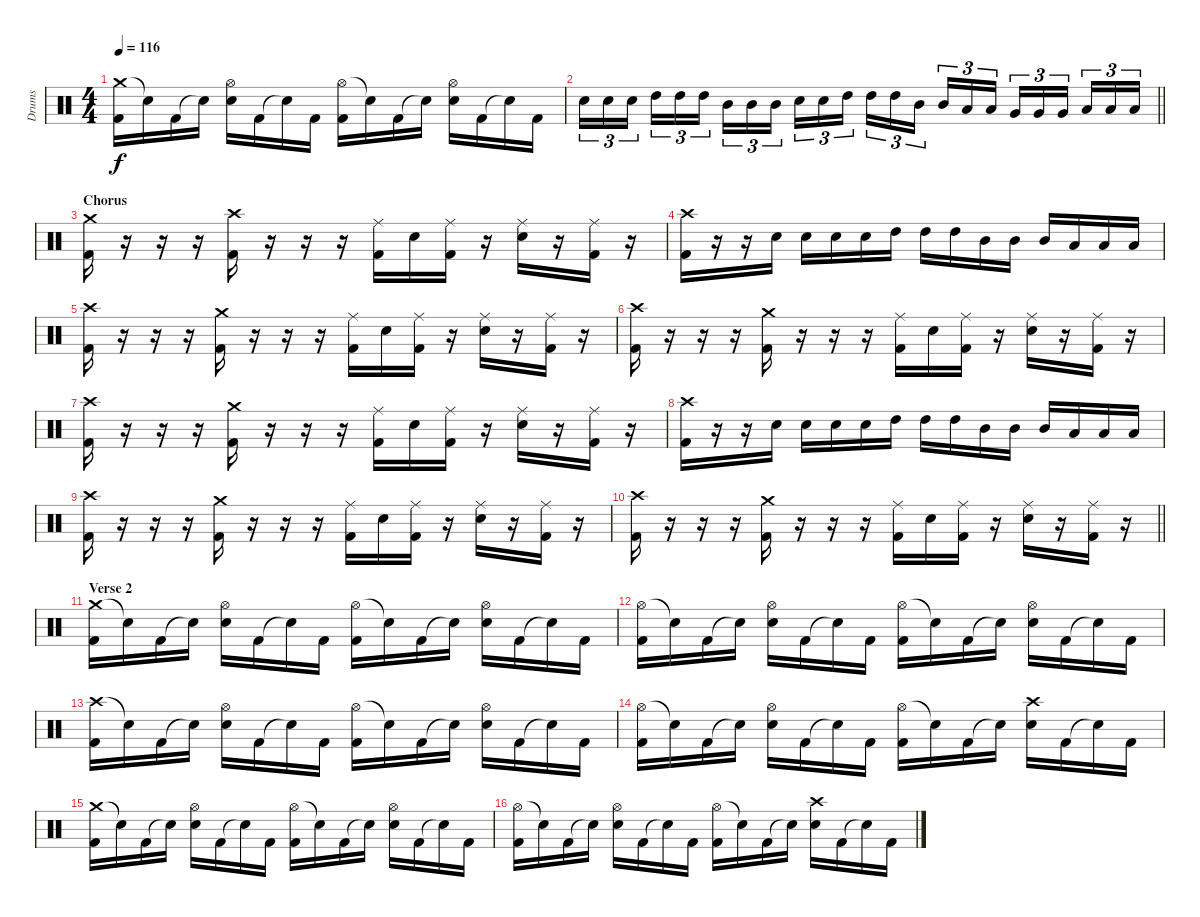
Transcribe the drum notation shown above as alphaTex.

\track ("Drums" "Drums") {instrument percussion}
\staff {score}
\articulation defaults
\ts (4 4)
\tempo 116
\clef neutral
\ks c
("Crash medium (hit)" "Kick (hit) 2").16{dy f} "Snare (hit)"{t}.16 "Kick (hit) 2".16 "Snare (hit)"{t}.16 ("Hi-Hat (open)" "Snare (hit) 2").16 "Kick (hit) 2".16 "Snare (hit)"{t}.16 "Kick (hit) 2".16 ("Hi-Hat (open)" "Kick (hit) 2").16 "Snare (hit)"{t}.16 "Kick (hit) 2".16 "Snare (hit)"{t}.16 ("Hi-Hat (open)" "Snare (hit) 2").16 "Kick (hit) 2".16 "Snare (hit)"{t}.16 "Kick (hit) 2".16 |
\barLineRight lightlight "Snare (hit) 2".16{tu (3 2)} "Snare (hit) 2".16{tu (3 2)} "Snare (hit) 2".16{tu (3 2) beam splitsecondary} "High Tom (hit)".16{tu (3 2)} "High Tom (hit)".16{tu (3 2)} "High Tom (hit)".16{tu (3 2)} "Mid Tom (hit)".16{tu (3 2)} "Mid Tom (hit)".16{tu (3 2)} "Mid Tom (hit)".16{tu (3 2) beam splitsecondary} "Snare (hit) 2".16{tu (3 2)} "Snare (hit) 2".16{tu (3 2)} "High Tom (hit)".16{tu (3 2)} "High Tom (hit)".16{tu (3 2)} "High Tom (hit)".16{tu (3 2)} "Mid Tom (hit)".16{tu (3 2) beam splitsecondary} "Mid Tom (hit)".16{tu (3 2)} "Low Tom (hit)".16{tu (3 2)} "Low Tom (hit)".16{tu (3 2)} "Very Low Tom (hit)".16{tu (3 2)} "Very Low Tom (hit)".16{tu (3 2)} "Very Low Tom (hit)".16{tu (3 2) beam splitsecondary} "Low Floor Tom (hit)".16{tu (3 2)} "Low Floor Tom (hit)".16{tu (3 2)} "Low Floor Tom (hit)".16{tu (3 2)}
|
\section ("" "Chorus")
("Crash medium (hit)" "Kick (hit) 2").16 r.16 r.16 r.16 ("Crash high (hit)" "Kick (hit) 2").16 r.16 r.16 r.16 ("Ride (middle)" "Kick (hit) 2").16 "Snare (hit) 2".16 ("Ride (middle)" "Kick (hit) 2").16 r.16 ("Ride (middle)" "Snare (hit) 2").16 r.16 ("Ride (middle)" "Kick (hit) 2").16 r.16 |
("Crash high (hit)" "Kick (hit) 2").16 r.16 r.16 "Snare (hit) 2".16 "Snare (hit) 2".16 "Snare (hit) 2".16 "Snare (hit) 2".16 "High Tom (hit)".16 "High Tom (hit)".16 "High Tom (hit)".16 "Mid Tom (hit)".16 "Mid Tom (hit)".16 "Mid Tom (hit)".16 "Low Tom (hit)".16 "Low Tom (hit)".16 "Low Tom (hit)".16 |
("Crash high (hit)" "Kick (hit) 2").16 r.16 r.16 r.16 ("Crash medium (hit)" "Kick (hit) 2").16 r.16 r.16 r.16 ("Ride (middle)" "Kick (hit) 2").16 "Snare (hit) 2".16 ("Ride (middle)" "Kick (hit) 2").16 r.16 ("Ride (middle)" "Snare (hit) 2").16 r.16 ("Ride (middle)" "Kick (hit) 2").16 r.16 |
("Crash high (hit)" "Kick (hit) 2").16 r.16 r.16 r.16 ("Crash medium (hit)" "Kick (hit) 2").16 r.16 r.16 r.16 ("Ride (middle)" "Kick (hit) 2").16 "Snare (hit) 2".16 ("Ride (middle)" "Kick (hit) 2").16 r.16 ("Ride (middle)" "Snare (hit) 2").16 r.16 ("Ride (middle)" "Kick (hit) 2").16 r.16 |
("Crash high (hit)" "Kick (hit) 2").16 r.16 r.16 r.16 ("Crash medium (hit)" "Kick (hit) 2").16 r.16 r.16 r.16 ("Ride (middle)" "Kick (hit) 2").16 "Snare (hit) 2".16 ("Ride (middle)" "Kick (hit) 2").16 r.16 ("Ride (middle)" "Snare (hit) 2").16 r.16 ("Ride (middle)" "Kick (hit) 2").16 r.16 |
("Crash high (hit)" "Kick (hit) 2").16 r.16 r.16 "Snare (hit) 2".16 "Snare (hit) 2".16 "Snare (hit) 2".16 "Snare (hit) 2".16 "High Tom (hit)".16 "High Tom (hit)".16 "High Tom (hit)".16 "Mid Tom (hit)".16 "Mid Tom (hit)".16 "Mid Tom (hit)".16 "Low Tom (hit)".16 "Low Tom (hit)".16 "Low Tom (hit)".16 |
("Crash high (hit)" "Kick (hit) 2").16 r.16 r.16 r.16 ("Crash medium (hit)" "Kick (hit) 2").16 r.16 r.16 r.16 ("Ride (middle)" "Kick (hit) 2").16 "Snare (hit) 2".16 ("Ride (middle)" "Kick (hit) 2").16 r.16 ("Ride (middle)" "Snare (hit) 2").16 r.16 ("Ride (middle)" "Kick (hit) 2").16 r.16 |
\barLineRight lightlight
("Crash high (hit)" "Kick (hit) 2").16 r.16 r.16 r.16 ("Crash medium (hit)" "Kick (hit) 2").16 r.16 r.16 r.16 ("Ride (middle)" "Kick (hit) 2").16 "Snare (hit) 2".16 ("Ride (middle)" "Kick (hit) 2").16 r.16 ("Ride (middle)" "Snare (hit) 2").16 r.16 ("Ride (middle)" "Kick (hit) 2").16 r.16 |
\section ("" "Verse 2")
("Crash medium (hit)" "Kick (hit) 2").16 "Snare (hit)"{t}.16 "Kick (hit) 2".16 "Snare (hit)"{t}.16 ("Hi-Hat (open)" "Snare (hit) 2").16 "Kick (hit) 2".16 "Snare (hit)"{t}.16 "Kick (hit) 2".16 ("Hi-Hat (open)" "Kick (hit) 2").16 "Snare (hit)"{t}.16 "Kick (hit) 2".16 "Snare (hit)"{t}.16 ("Hi-Hat (open)" "Snare (hit) 2").16 "Kick (hit) 2".16 "Snare (hit)"{t}.16 "Kick (hit) 2".16 |
("Hi-Hat (open)" "Kick (hit) 2").16 "Snare (hit)"{t}.16 "Kick (hit) 2".16 "Snare (hit)"{t}.16 ("Hi-Hat (open)" "Snare (hit) 2").16 "Kick (hit) 2".16 "Snare (hit)"{t}.16 "Kick (hit) 2".16 ("Hi-Hat (open)" "Kick (hit) 2").16 "Snare (hit)"{t}.16 "Kick (hit) 2".16 "Snare (hit)"{t}.16 ("Hi-Hat (open)" "Snare (hit) 2").16 "Kick (hit) 2".16 "Snare (hit)"{t}.16 "Kick (hit) 2".16 |
("Crash high (hit)" "Kick (hit) 2").16 "Snare (hit)"{t}.16 "Kick (hit) 2".16 "Snare (hit)"{t}.16 ("Hi-Hat (open)" "Snare (hit) 2").16 "Kick (hit) 2".16 "Snare (hit)"{t}.16 "Kick (hit) 2".16 ("Hi-Hat (open)" "Kick (hit) 2").16 "Snare (hit)"{t}.16 "Kick (hit) 2".16 "Snare (hit)"{t}.16 ("Hi-Hat (open)" "Snare (hit) 2").16 "Kick (hit) 2".16 "Snare (hit)"{t}.16 "Kick (hit) 2".16 |
("Hi-Hat (open)" "Kick (hit) 2").16 "Snare (hit)"{t}.16 "Kick (hit) 2".16 "Snare (hit)"{t}.16 ("Hi-Hat (open)" "Snare (hit) 2").16 "Kick (hit) 2".16 "Snare (hit)"{t}.16 "Kick (hit) 2".16 ("Hi-Hat (open)" "Kick (hit) 2").16 "Snare (hit)"{t}.16 "Kick (hit) 2".16 "Snare (hit)"{t}.16 ("Crash high (hit)" "Snare (hit) 2").16 "Kick (hit) 2".16 "Snare (hit)"{t}.16 "Kick (hit) 2".16 |
("Crash medium (hit)" "Kick (hit) 2").16 "Snare (hit)"{t}.16 "Kick (hit) 2".16 "Snare (hit)"{t}.16 ("Hi-Hat (open)" "Snare (hit) 2").16 "Kick (hit) 2".16 "Snare (hit)"{t}.16 "Kick (hit) 2".16 ("Hi-Hat (open)" "Kick (hit) 2").16 "Snare (hit)"{t}.16 "Kick (hit) 2".16 "Snare (hit)"{t}.16 ("Hi-Hat (open)" "Snare (hit) 2").16 "Kick (hit) 2".16 "Snare (hit)"{t}.16 "Kick (hit) 2".16 |
("Hi-Hat (open)" "Kick (hit) 2").16 "Snare (hit)"{t}.16 "Kick (hit) 2".16 "Snare (hit)"{t}.16 ("Hi-Hat (open)" "Snare (hit) 2").16 "Kick (hit) 2".16 "Snare (hit)"{t}.16 "Kick (hit) 2".16 ("Hi-Hat (open)" "Kick (hit) 2").16 "Snare (hit)"{t}.16 "Kick (hit) 2".16 "Snare (hit)"{t}.16 ("Crash high (hit)" "Snare (hit) 2").16 "Kick (hit) 2".16 "Snare (hit)"{t}.16 "Kick (hit) 2".16
